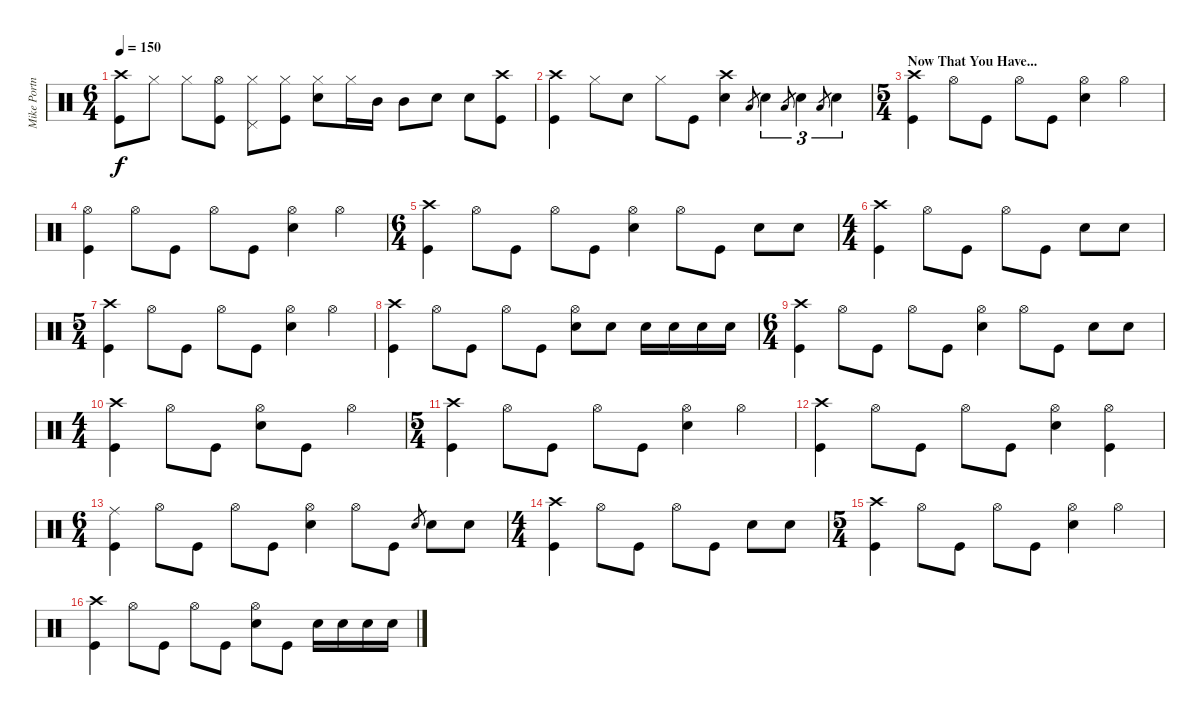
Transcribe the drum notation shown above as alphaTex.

\track ("Mike Portnoy" "Mike Portn") {instrument percussion}
\staff {score}
\articulation defaults
\ts (6 4)
\tempo 150
\clef neutral
\ks c
("Crash high (hit)" "Kick (hit)").8{dy f} "Hi-Hat (closed)".8 "Hi-Hat (closed)".8 ("Hi-Hat (open)" "Kick (hit)").8 ("Hi-Hat (closed)" "Pedal Hi-Hat (hit)").8 ("Hi-Hat (closed)" "Kick (hit)").8 ("Hi-Hat (closed)" "Electric Snare (hit)").8 "Hi-Hat (closed)".16 "Mid Tom (hit)".16 "Mid Tom (hit)".8 "Electric Snare (hit)".8 "Electric Snare (hit)".8 ("Crash high (hit)" "Kick (hit)").8 |
("Crash high (hit)" "Kick (hit)").4 "Hi-Hat (closed)".8 "Electric Snare (hit)".8 "Hi-Hat (closed)".8 "Kick (hit)".8 ("Crash high (hit)" "Electric Snare (hit)").4 "Low Tom (hit)".8{gr} "Electric Snare (hit)".4{tu (3 2)} "Low Tom (hit)".8{gr} "Electric Snare (hit)".4{tu (3 2)} "Low Tom (hit)".8{gr} "Electric Snare (hit)".4{tu (3 2)} |
\ts (5 4)
\section ("" "Now That You Have...")
("Crash high (hit)" "Kick (hit)").4 "Hi-Hat (open)".8 "Kick (hit)".8 "Hi-Hat (open)".8 "Kick (hit)".8 ("Hi-Hat (open)" "Electric Snare (hit)").4 "Hi-Hat (open)".4 |
("Hi-Hat (open)" "Kick (hit)").4 "Hi-Hat (open)".8 "Kick (hit)".8 "Hi-Hat (open)".8 "Kick (hit)".8 ("Hi-Hat (open)" "Electric Snare (hit)").4 "Hi-Hat (open)".4 |
\ts (6 4)
("Crash high (hit)" "Kick (hit)").4 "Hi-Hat (open)".8 "Kick (hit)".8 "Hi-Hat (open)".8 "Kick (hit)".8 ("Hi-Hat (open)" "Electric Snare (hit)").4 "Hi-Hat (open)".8 "Kick (hit)".8 "Electric Snare (hit)".8 "Electric Snare (hit)".8 |
\ts (4 4)
("Crash high (hit)" "Kick (hit)").4 "Hi-Hat (open)".8 "Kick (hit)".8 "Hi-Hat (open)".8 "Kick (hit)".8 "Electric Snare (hit)".8 "Electric Snare (hit)".8 |
\ts (5 4)
("Crash high (hit)" "Kick (hit)").4 "Hi-Hat (open)".8 "Kick (hit)".8 "Hi-Hat (open)".8 "Kick (hit)".8 ("Hi-Hat (open)" "Electric Snare (hit)").4 "Hi-Hat (open)".4 |
("Crash high (hit)" "Kick (hit)").4 "Hi-Hat (open)".8 "Kick (hit)".8 "Hi-Hat (open)".8 "Kick (hit)".8 ("Hi-Hat (open)" "Electric Snare (hit)").8 "Electric Snare (hit)".8 "Electric Snare (hit)".16 "Electric Snare (hit)".16 "Electric Snare (hit)".16 "Electric Snare (hit)".16 |
\ts (6 4)
("Crash high (hit)" "Kick (hit)").4 "Hi-Hat (open)".8 "Kick (hit)".8 "Hi-Hat (open)".8 "Kick (hit)".8 ("Hi-Hat (open)" "Electric Snare (hit)").4 "Hi-Hat (open)".8 "Kick (hit)".8 "Electric Snare (hit)".8 "Electric Snare (hit)".8 |
\ts (4 4)
("Crash high (hit)" "Kick (hit)").4 "Hi-Hat (open)".8 "Kick (hit)".8 ("Hi-Hat (open)" "Electric Snare (hit)").8 "Kick (hit)".8 "Hi-Hat (open)".4 |
\ts (5 4)
("Crash high (hit)" "Kick (hit)").4 "Hi-Hat (open)".8 "Kick (hit)".8 "Hi-Hat (open)".8 "Kick (hit)".8 ("Hi-Hat (open)" "Electric Snare (hit)").4 "Hi-Hat (open)".4 |
("Crash high (hit)" "Kick (hit)").4 "Hi-Hat (open)".8 "Kick (hit)".8 "Hi-Hat (open)".8 "Kick (hit)".8 ("Hi-Hat (open)" "Electric Snare (hit)").4 ("Hi-Hat (open)" "Kick (hit)").4 |
\ts (6 4)
("Ride (middle)" "Kick (hit)").4 "Hi-Hat (open)".8 "Kick (hit)".8 "Hi-Hat (open)".8 "Kick (hit)".8 ("Hi-Hat (open)" "Electric Snare (hit)").4 "Hi-Hat (open)".8 "Kick (hit)".8 "Electric Snare (hit)".8{gr} "Electric Snare (hit)".8 "Electric Snare (hit)".8 |
\ts (4 4)
("Crash high (hit)" "Kick (hit)").4 "Hi-Hat (open)".8 "Kick (hit)".8 "Hi-Hat (open)".8 "Kick (hit)".8 "Electric Snare (hit)".8 "Electric Snare (hit)".8 |
\ts (5 4)
("Crash high (hit)" "Kick (hit)").4 "Hi-Hat (open)".8 "Kick (hit)".8 "Hi-Hat (open)".8 "Kick (hit)".8 ("Hi-Hat (open)" "Electric Snare (hit)").4 "Hi-Hat (open)".4 |
("Crash high (hit)" "Kick (hit)").4 "Hi-Hat (open)".8 "Kick (hit)".8 "Hi-Hat (open)".8 "Kick (hit)".8 ("Hi-Hat (open)" "Electric Snare (hit)").8 "Kick (hit)".8 "Electric Snare (hit)".16 "Electric Snare (hit)".16 "Electric Snare (hit)".16 "Electric Snare (hit)".16
